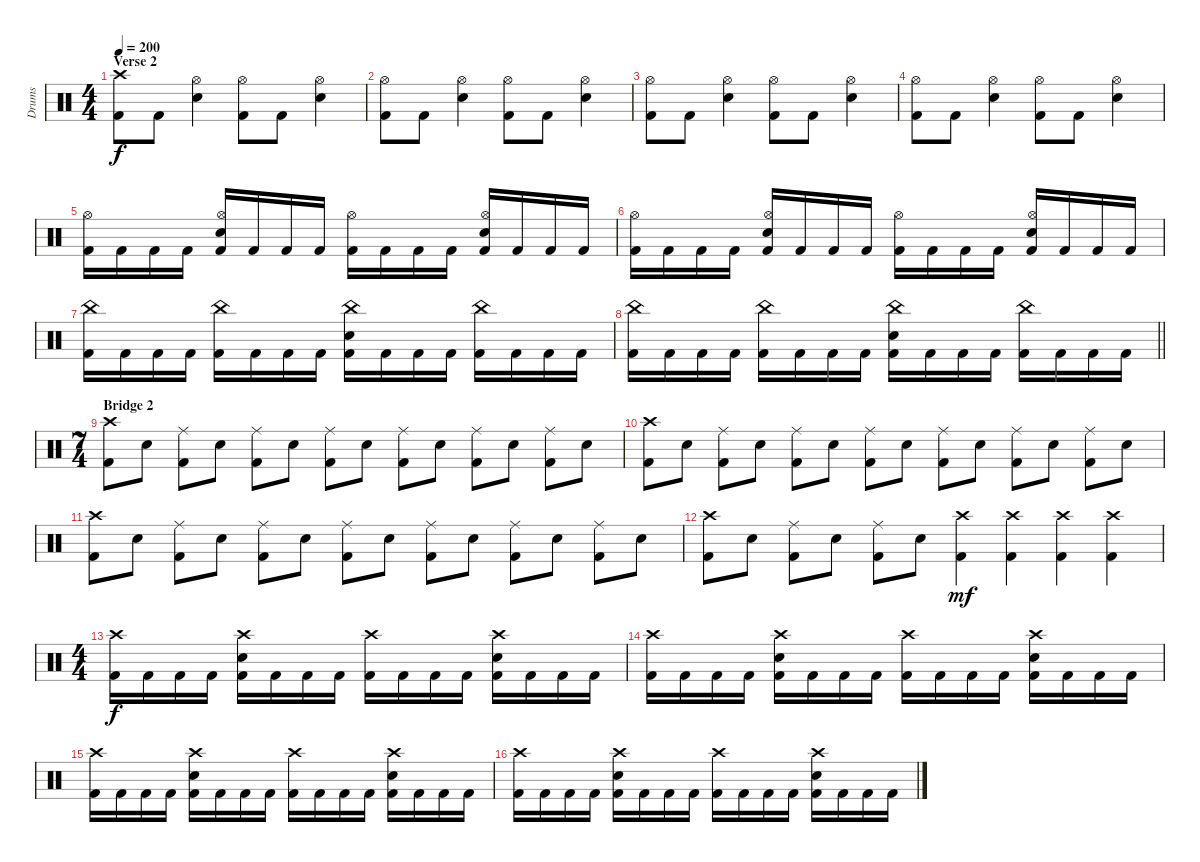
\track ("Drums" "Drums") {instrument percussion}
\staff {score}
\articulation defaults
\ts (4 4)
\section ("" "Verse 2")
\tempo 200
\clef neutral
\ks c
("Crash high (hit)" "Kick (hit) 2").8{dy f} "Kick (hit) 2".8 ("Hi-Hat (open)" "Electric Snare (hit)").4 ("Hi-Hat (open)" "Kick (hit) 2").8 "Kick (hit) 2".8 ("Hi-Hat (open)" "Electric Snare (hit)").4 |
("Hi-Hat (open)" "Kick (hit) 2").8 "Kick (hit) 2".8 ("Hi-Hat (open)" "Electric Snare (hit)").4 ("Hi-Hat (open)" "Kick (hit) 2").8 "Kick (hit) 2".8 ("Hi-Hat (open)" "Electric Snare (hit)").4 |
("Hi-Hat (open)" "Kick (hit) 2").8 "Kick (hit) 2".8 ("Hi-Hat (open)" "Electric Snare (hit)").4 ("Hi-Hat (open)" "Kick (hit) 2").8 "Kick (hit) 2".8 ("Hi-Hat (open)" "Electric Snare (hit)").4 |
("Hi-Hat (open)" "Kick (hit) 2").8 "Kick (hit) 2".8 ("Hi-Hat (open)" "Electric Snare (hit)").4 ("Hi-Hat (open)" "Kick (hit) 2").8 "Kick (hit) 2".8 ("Hi-Hat (open)" "Electric Snare (hit)").4 |
("Hi-Hat (open)" "Kick (hit) 2").16 "Kick (hit) 2".16 "Kick (hit) 2".16 "Kick (hit) 2".16 ("Hi-Hat (open)" "Electric Snare (hit)" "Kick (hit) 2").16 "Kick (hit) 2".16 "Kick (hit) 2".16 "Kick (hit) 2".16 ("Hi-Hat (open)" "Kick (hit) 2").16 "Kick (hit) 2".16 "Kick (hit) 2".16 "Kick (hit) 2".16 ("Hi-Hat (open)" "Electric Snare (hit)" "Kick (hit) 2").16 "Kick (hit) 2".16 "Kick (hit) 2".16 "Kick (hit) 2".16 |
("Hi-Hat (open)" "Kick (hit) 2").16 "Kick (hit) 2".16 "Kick (hit) 2".16 "Kick (hit) 2".16 ("Hi-Hat (open)" "Electric Snare (hit)" "Kick (hit) 2").16 "Kick (hit) 2".16 "Kick (hit) 2".16 "Kick (hit) 2".16 ("Hi-Hat (open)" "Kick (hit) 2").16 "Kick (hit) 2".16 "Kick (hit) 2".16 "Kick (hit) 2".16 ("Hi-Hat (open)" "Electric Snare (hit)" "Kick (hit) 2").16 "Kick (hit) 2".16 "Kick (hit) 2".16 "Kick (hit) 2".16 |
("China (hit)" "Kick (hit) 2").16 "Kick (hit) 2".16 "Kick (hit) 2".16 "Kick (hit) 2".16 ("China (hit)" "Kick (hit) 2").16 "Kick (hit) 2".16 "Kick (hit) 2".16 "Kick (hit) 2".16 ("China (hit)" "Electric Snare (hit)" "Kick (hit) 2").16 "Kick (hit) 2".16 "Kick (hit) 2".16 "Kick (hit) 2".16 ("China (hit)" "Kick (hit) 2").16 "Kick (hit) 2".16 "Kick (hit) 2".16 "Kick (hit) 2".16 |
\barLineRight lightlight
("China (hit)" "Kick (hit) 2").16 "Kick (hit) 2".16 "Kick (hit) 2".16 "Kick (hit) 2".16 ("China (hit)" "Kick (hit) 2").16 "Kick (hit) 2".16 "Kick (hit) 2".16 "Kick (hit) 2".16 ("China (hit)" "Electric Snare (hit)" "Kick (hit) 2").16 "Kick (hit) 2".16 "Kick (hit) 2".16 "Kick (hit) 2".16 ("China (hit)" "Kick (hit) 2").16 "Kick (hit) 2".16 "Kick (hit) 2".16 "Kick (hit) 2".16 |
\ts (7 4)
\section ("" "Bridge 2")
("Crash high (hit)" "Kick (hit) 2").8 "Electric Snare (hit)".8 ("Ride (middle)" "Kick (hit) 2").8 "Electric Snare (hit)".8 ("Ride (middle)" "Kick (hit) 2").8 "Electric Snare (hit)".8 ("Ride (middle)" "Kick (hit) 2").8 "Electric Snare (hit)".8 ("Ride (middle)" "Kick (hit) 2").8 "Electric Snare (hit)".8 ("Ride (middle)" "Kick (hit) 2").8 "Electric Snare (hit)".8 ("Ride (middle)" "Kick (hit) 2").8 "Electric Snare (hit)".8 |
("Crash high (hit)" "Kick (hit) 2").8 "Electric Snare (hit)".8 ("Ride (middle)" "Kick (hit) 2").8 "Electric Snare (hit)".8 ("Ride (middle)" "Kick (hit) 2").8 "Electric Snare (hit)".8 ("Ride (middle)" "Kick (hit) 2").8 "Electric Snare (hit)".8 ("Ride (middle)" "Kick (hit) 2").8 "Electric Snare (hit)".8 ("Ride (middle)" "Kick (hit) 2").8 "Electric Snare (hit)".8 ("Ride (middle)" "Kick (hit) 2").8 "Electric Snare (hit)".8 |
("Crash high (hit)" "Kick (hit) 2").8 "Electric Snare (hit)".8 ("Ride (middle)" "Kick (hit) 2").8 "Electric Snare (hit)".8 ("Ride (middle)" "Kick (hit) 2").8 "Electric Snare (hit)".8 ("Ride (middle)" "Kick (hit) 2").8 "Electric Snare (hit)".8 ("Ride (middle)" "Kick (hit) 2").8 "Electric Snare (hit)".8 ("Ride (middle)" "Kick (hit) 2").8 "Electric Snare (hit)".8 ("Ride (middle)" "Kick (hit) 2").8 "Electric Snare (hit)".8 |
("Crash high (hit)" "Kick (hit) 2").8 "Electric Snare (hit)".8 ("Ride (middle)" "Kick (hit) 2").8 "Electric Snare (hit)".8 ("Ride (middle)" "Kick (hit) 2").8 "Electric Snare (hit)".8 ("Crash high (hit)" "Kick (hit) 2").4{dy mf} ("Crash high (hit)" "Kick (hit) 2").4 ("Crash high (hit)" "Kick (hit) 2").4 ("Crash high (hit)" "Kick (hit) 2").4 |
\ts (4 4)
("Crash high (hit)" "Kick (hit) 2").16{dy f} "Kick (hit) 2".16 "Kick (hit) 2".16 "Kick (hit) 2".16 ("Crash high (hit)" "Electric Snare (hit)" "Kick (hit) 2").16 "Kick (hit) 2".16 "Kick (hit) 2".16 "Kick (hit) 2".16 ("Crash high (hit)" "Kick (hit) 2").16 "Kick (hit) 2".16 "Kick (hit) 2".16 "Kick (hit) 2".16 ("Crash high (hit)" "Electric Snare (hit)" "Kick (hit) 2").16 "Kick (hit) 2".16 "Kick (hit) 2".16 "Kick (hit) 2".16 |
("Crash high (hit)" "Kick (hit) 2").16 "Kick (hit) 2".16 "Kick (hit) 2".16 "Kick (hit) 2".16 ("Crash high (hit)" "Electric Snare (hit)" "Kick (hit) 2").16 "Kick (hit) 2".16 "Kick (hit) 2".16 "Kick (hit) 2".16 ("Crash high (hit)" "Kick (hit) 2").16 "Kick (hit) 2".16 "Kick (hit) 2".16 "Kick (hit) 2".16 ("Crash high (hit)" "Electric Snare (hit)" "Kick (hit) 2").16 "Kick (hit) 2".16 "Kick (hit) 2".16 "Kick (hit) 2".16 |
("Crash high (hit)" "Kick (hit) 2").16 "Kick (hit) 2".16 "Kick (hit) 2".16 "Kick (hit) 2".16 ("Crash high (hit)" "Electric Snare (hit)" "Kick (hit) 2").16 "Kick (hit) 2".16 "Kick (hit) 2".16 "Kick (hit) 2".16 ("Crash high (hit)" "Kick (hit) 2").16 "Kick (hit) 2".16 "Kick (hit) 2".16 "Kick (hit) 2".16 ("Crash high (hit)" "Electric Snare (hit)" "Kick (hit) 2").16 "Kick (hit) 2".16 "Kick (hit) 2".16 "Kick (hit) 2".16 |
("Crash high (hit)" "Kick (hit) 2").16 "Kick (hit) 2".16 "Kick (hit) 2".16 "Kick (hit) 2".16 ("Crash high (hit)" "Electric Snare (hit)" "Kick (hit) 2").16 "Kick (hit) 2".16 "Kick (hit) 2".16 "Kick (hit) 2".16 ("Crash high (hit)" "Kick (hit) 2").16 "Kick (hit) 2".16 "Kick (hit) 2".16 "Kick (hit) 2".16 ("Crash high (hit)" "Electric Snare (hit)" "Kick (hit) 2").16 "Kick (hit) 2".16 "Kick (hit) 2".16 "Kick (hit) 2".16
